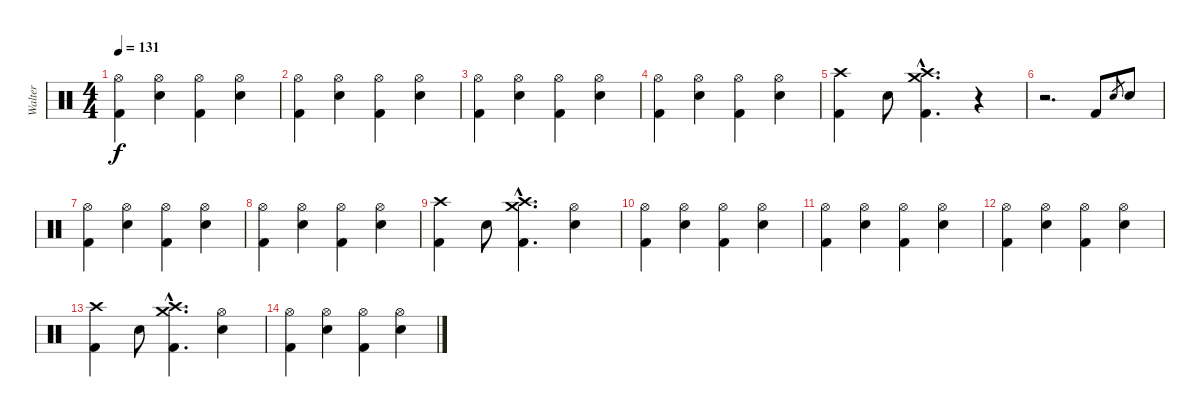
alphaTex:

\track ("Walter" "Walter") {instrument percussion}
\staff {score}
\articulation defaults
\ts (4 4)
\tempo 131
\clef neutral
\ks c
("Hi-Hat (open)" "Kick (hit) 2").4{dy f} ("Hi-Hat (open)" "Electric Snare (hit)").4 ("Hi-Hat (open)" "Kick (hit) 2").4 ("Hi-Hat (open)" "Electric Snare (hit)").4 |
("Hi-Hat (open)" "Kick (hit) 2").4 ("Hi-Hat (open)" "Electric Snare (hit)").4 ("Hi-Hat (open)" "Kick (hit) 2").4 ("Hi-Hat (open)" "Electric Snare (hit)").4 |
("Hi-Hat (open)" "Kick (hit) 2").4 ("Hi-Hat (open)" "Electric Snare (hit)").4 ("Hi-Hat (open)" "Kick (hit) 2").4 ("Hi-Hat (open)" "Electric Snare (hit)").4 |
("Hi-Hat (open)" "Kick (hit) 2").4 ("Hi-Hat (open)" "Electric Snare (hit)").4 ("Hi-Hat (open)" "Kick (hit) 2").4 ("Hi-Hat (open)" "Electric Snare (hit)").4 |
("Kick (hit) 2" "Crash high (hit)").4 "Electric Snare (hit)".8 ("Kick (hit) 2"{hac} "Crash high (hit)"{hac} "Crash medium (hit)"{hac}).4{d} r.4 |
r.2{d} "Kick (hit) 2".8 "Electric Snare (hit)".8{gr} "Electric Snare (hit)".8 |
("Hi-Hat (open)" "Kick (hit) 2").4 ("Hi-Hat (open)" "Electric Snare (hit)").4 ("Hi-Hat (open)" "Kick (hit) 2").4 ("Hi-Hat (open)" "Electric Snare (hit)").4 |
("Hi-Hat (open)" "Kick (hit) 2").4 ("Hi-Hat (open)" "Electric Snare (hit)").4 ("Hi-Hat (open)" "Kick (hit) 2").4 ("Hi-Hat (open)" "Electric Snare (hit)").4 |
("Kick (hit) 2" "Crash high (hit)").4 "Electric Snare (hit)".8 ("Kick (hit) 2"{hac} "Crash high (hit)"{hac} "Crash medium (hit)"{hac}).4{d} ("Hi-Hat (open)" "Electric Snare (hit)").4 |
("Hi-Hat (open)" "Kick (hit) 2").4 ("Hi-Hat (open)" "Electric Snare (hit)").4 ("Hi-Hat (open)" "Kick (hit) 2").4 ("Hi-Hat (open)" "Electric Snare (hit)").4 |
("Hi-Hat (open)" "Kick (hit) 2").4 ("Hi-Hat (open)" "Electric Snare (hit)").4 ("Hi-Hat (open)" "Kick (hit) 2").4 ("Hi-Hat (open)" "Electric Snare (hit)").4 |
("Hi-Hat (open)" "Kick (hit) 2").4 ("Hi-Hat (open)" "Electric Snare (hit)").4 ("Hi-Hat (open)" "Kick (hit) 2").4 ("Hi-Hat (open)" "Electric Snare (hit)").4 |
("Kick (hit) 2" "Crash high (hit)").4 "Electric Snare (hit)".8 ("Kick (hit) 2"{hac} "Crash high (hit)"{hac} "Crash medium (hit)"{hac}).4{d} ("Hi-Hat (open)" "Electric Snare (hit)").4 |
("Hi-Hat (open)" "Kick (hit) 2").4 ("Hi-Hat (open)" "Electric Snare (hit)").4 ("Hi-Hat (open)" "Kick (hit) 2").4 ("Hi-Hat (open)" "Electric Snare (hit)").4
